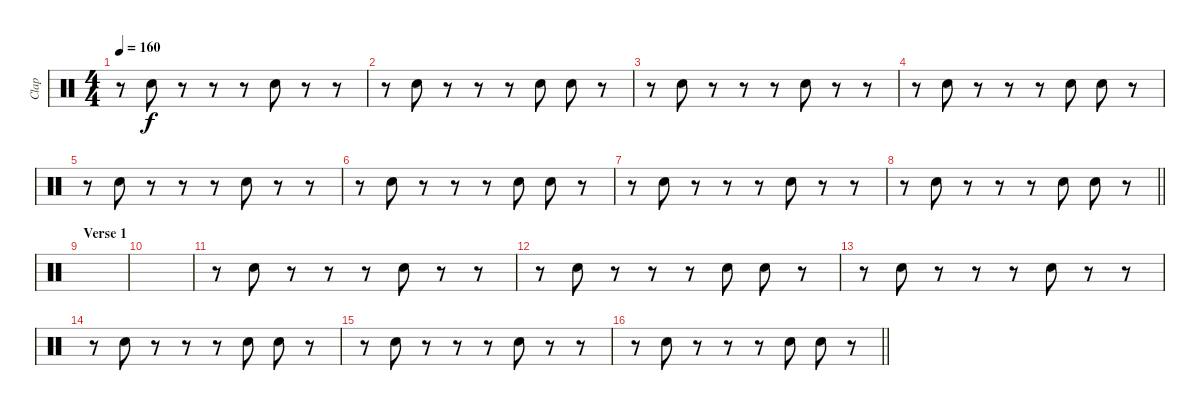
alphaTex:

\track ("Clap" "Clap") {instrument percussion}
\staff {score}
\articulation defaults
\ts (4 4)
\tempo 160
\clef neutral
\ks c
r.8{dy f} "Hand Clap (hit)".8 r.8 r.8 r.8 "Hand Clap (hit)".8 r.8 r.8 |
r.8 "Hand Clap (hit)".8 r.8 r.8 r.8 "Hand Clap (hit)".8 "Hand Clap (hit)".8 r.8 |
r.8 "Hand Clap (hit)".8 r.8 r.8 r.8 "Hand Clap (hit)".8 r.8 r.8 |
r.8 "Hand Clap (hit)".8 r.8 r.8 r.8 "Hand Clap (hit)".8 "Hand Clap (hit)".8 r.8 |
r.8 "Hand Clap (hit)".8 r.8 r.8 r.8 "Hand Clap (hit)".8 r.8 r.8 |
r.8 "Hand Clap (hit)".8 r.8 r.8 r.8 "Hand Clap (hit)".8 "Hand Clap (hit)".8 r.8 |
r.8 "Hand Clap (hit)".8 r.8 r.8 r.8 "Hand Clap (hit)".8 r.8 r.8 |
\barLineRight lightlight
r.8 "Hand Clap (hit)".8 r.8 r.8 r.8 "Hand Clap (hit)".8 "Hand Clap (hit)".8 r.8 |
\section ("" "Verse 1")
|
|
r.8 "Hand Clap (hit)".8 r.8 r.8 r.8 "Hand Clap (hit)".8 r.8 r.8 |
r.8 "Hand Clap (hit)".8 r.8 r.8 r.8 "Hand Clap (hit)".8 "Hand Clap (hit)".8 r.8 |
r.8 "Hand Clap (hit)".8 r.8 r.8 r.8 "Hand Clap (hit)".8 r.8 r.8 |
r.8 "Hand Clap (hit)".8 r.8 r.8 r.8 "Hand Clap (hit)".8 "Hand Clap (hit)".8 r.8 |
r.8 "Hand Clap (hit)".8 r.8 r.8 r.8 "Hand Clap (hit)".8 r.8 r.8 |
\barLineRight lightlight
r.8 "Hand Clap (hit)".8 r.8 r.8 r.8 "Hand Clap (hit)".8 "Hand Clap (hit)".8 r.8
